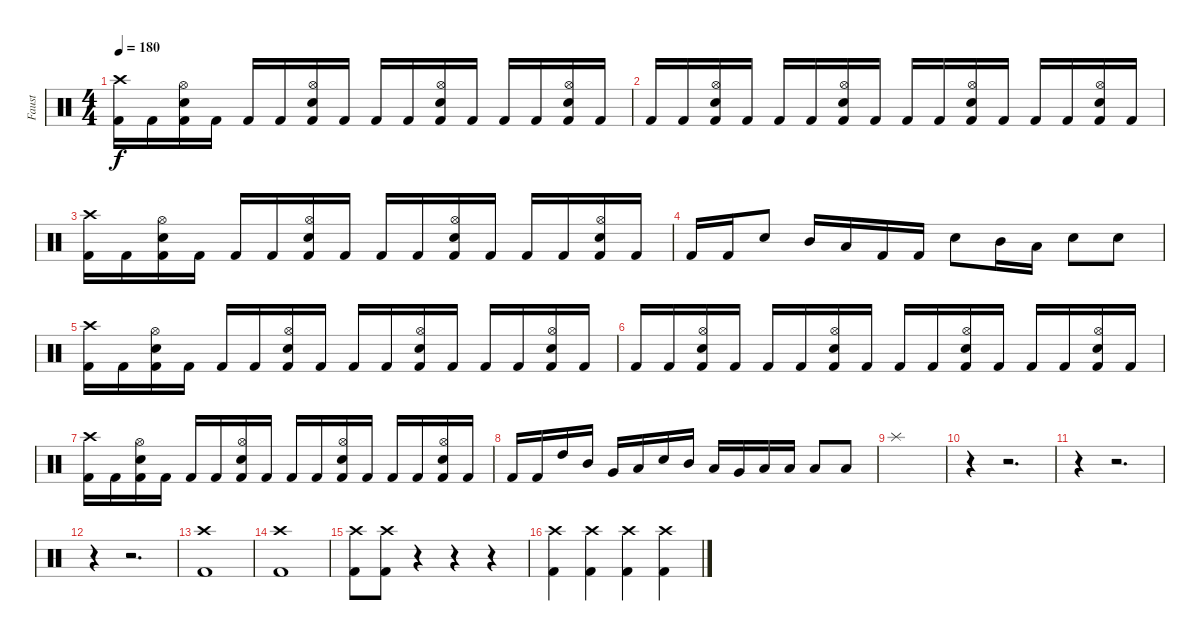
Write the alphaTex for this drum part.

\track ("Faust" "Faust") {instrument percussion}
\staff {score}
\articulation defaults
\ts (4 4)
\tempo 180
\clef neutral
\ks c
("Crash high (hit)" "Kick (hit) 2").16{dy f} "Kick (hit) 2".16 ("Hi-Hat (open)" "Snare (hit) 2" "Kick (hit) 2").16 "Kick (hit) 2".16 "Kick (hit) 2".16 "Kick (hit) 2".16 ("Hi-Hat (open)" "Snare (hit) 2" "Kick (hit) 2").16 "Kick (hit) 2".16 "Kick (hit) 2".16 "Kick (hit) 2".16 ("Hi-Hat (open)" "Snare (hit) 2" "Kick (hit) 2").16 "Kick (hit) 2".16 "Kick (hit) 2".16 "Kick (hit) 2".16 ("Hi-Hat (open)" "Snare (hit) 2" "Kick (hit) 2").16 "Kick (hit) 2".16 |
"Kick (hit) 2".16 "Kick (hit) 2".16 ("Hi-Hat (open)" "Snare (hit) 2" "Kick (hit) 2").16 "Kick (hit) 2".16 "Kick (hit) 2".16 "Kick (hit) 2".16 ("Hi-Hat (open)" "Snare (hit) 2" "Kick (hit) 2").16 "Kick (hit) 2".16 "Kick (hit) 2".16 "Kick (hit) 2".16 ("Hi-Hat (open)" "Snare (hit) 2" "Kick (hit) 2").16 "Kick (hit) 2".16 "Kick (hit) 2".16 "Kick (hit) 2".16 ("Hi-Hat (open)" "Snare (hit) 2" "Kick (hit) 2").16 "Kick (hit) 2".16 |
("Crash high (hit)" "Kick (hit) 2").16 "Kick (hit) 2".16 ("Hi-Hat (open)" "Snare (hit) 2" "Kick (hit) 2").16 "Kick (hit) 2".16 "Kick (hit) 2".16 "Kick (hit) 2".16 ("Hi-Hat (open)" "Snare (hit) 2" "Kick (hit) 2").16 "Kick (hit) 2".16 "Kick (hit) 2".16 "Kick (hit) 2".16 ("Hi-Hat (open)" "Snare (hit) 2" "Kick (hit) 2").16 "Kick (hit) 2".16 "Kick (hit) 2".16 "Kick (hit) 2".16 ("Hi-Hat (open)" "Snare (hit) 2" "Kick (hit) 2").16 "Kick (hit) 2".16 |
"Kick (hit) 2".16 "Kick (hit) 2".16 "Snare (hit) 2".8 "Mid Tom (hit)".16 "Low Tom (hit)".16 "Kick (hit) 2".16 "Kick (hit) 2".16 "Snare (hit) 2".8 "Mid Tom (hit)".16 "Low Tom (hit)".16 "Snare (hit) 2".8 "Snare (hit) 2".8 |
("Crash high (hit)" "Kick (hit) 2").16 "Kick (hit) 2".16 ("Hi-Hat (open)" "Snare (hit) 2" "Kick (hit) 2").16 "Kick (hit) 2".16 "Kick (hit) 2".16 "Kick (hit) 2".16 ("Hi-Hat (open)" "Snare (hit) 2" "Kick (hit) 2").16 "Kick (hit) 2".16 "Kick (hit) 2".16 "Kick (hit) 2".16 ("Hi-Hat (open)" "Snare (hit) 2" "Kick (hit) 2").16 "Kick (hit) 2".16 "Kick (hit) 2".16 "Kick (hit) 2".16 ("Hi-Hat (open)" "Snare (hit) 2" "Kick (hit) 2").16 "Kick (hit) 2".16 |
"Kick (hit) 2".16 "Kick (hit) 2".16 ("Hi-Hat (open)" "Snare (hit) 2" "Kick (hit) 2").16 "Kick (hit) 2".16 "Kick (hit) 2".16 "Kick (hit) 2".16 ("Hi-Hat (open)" "Snare (hit) 2" "Kick (hit) 2").16 "Kick (hit) 2".16 "Kick (hit) 2".16 "Kick (hit) 2".16 ("Hi-Hat (open)" "Snare (hit) 2" "Kick (hit) 2").16 "Kick (hit) 2".16 "Kick (hit) 2".16 "Kick (hit) 2".16 ("Hi-Hat (open)" "Snare (hit) 2" "Kick (hit) 2").16 "Kick (hit) 2".16 |
("Crash high (hit)" "Kick (hit) 2").16 "Kick (hit) 2".16 ("Hi-Hat (open)" "Snare (hit) 2" "Kick (hit) 2").16 "Kick (hit) 2".16 "Kick (hit) 2".16 "Kick (hit) 2".16 ("Hi-Hat (open)" "Snare (hit) 2" "Kick (hit) 2").16 "Kick (hit) 2".16 "Kick (hit) 2".16 "Kick (hit) 2".16 ("Hi-Hat (open)" "Snare (hit) 2" "Kick (hit) 2").16 "Kick (hit) 2".16 "Kick (hit) 2".16 "Kick (hit) 2".16 ("Hi-Hat (open)" "Snare (hit) 2" "Kick (hit) 2").16 "Kick (hit) 2".16 |
"Kick (hit) 2".16 "Kick (hit) 2".16 "High Tom (hit)".16 "Mid Tom (hit)".16 "Very Low Tom (hit)".16 "Low Tom (hit)".16 "Snare (hit) 2".16 "Mid Tom (hit)".16 "Low Tom (hit)".16 "Very Low Tom (hit)".16 "Low Floor Tom (hit)".16 "Low Floor Tom (hit)".16 "Low Tom (hit)".8 "Low Tom (hit)".8 |
"Splash (hit)".1 |
r.4 r.2{d} |
r.4 r.2{d} |
r.4 r.2{d} |
("Crash high (hit)" "Kick (hit) 2").1 |
("Crash high (hit)" "Kick (hit) 2").1 |
("Crash high (hit)" "Kick (hit) 2").8 ("Crash high (hit)" "Kick (hit) 2").8 r.4 r.4 r.4 |
("Crash high (hit)" "Kick (hit) 2").4 ("Crash high (hit)" "Kick (hit) 2").4 ("Crash high (hit)" "Kick (hit) 2").4 ("Crash high (hit)" "Kick (hit) 2").4
